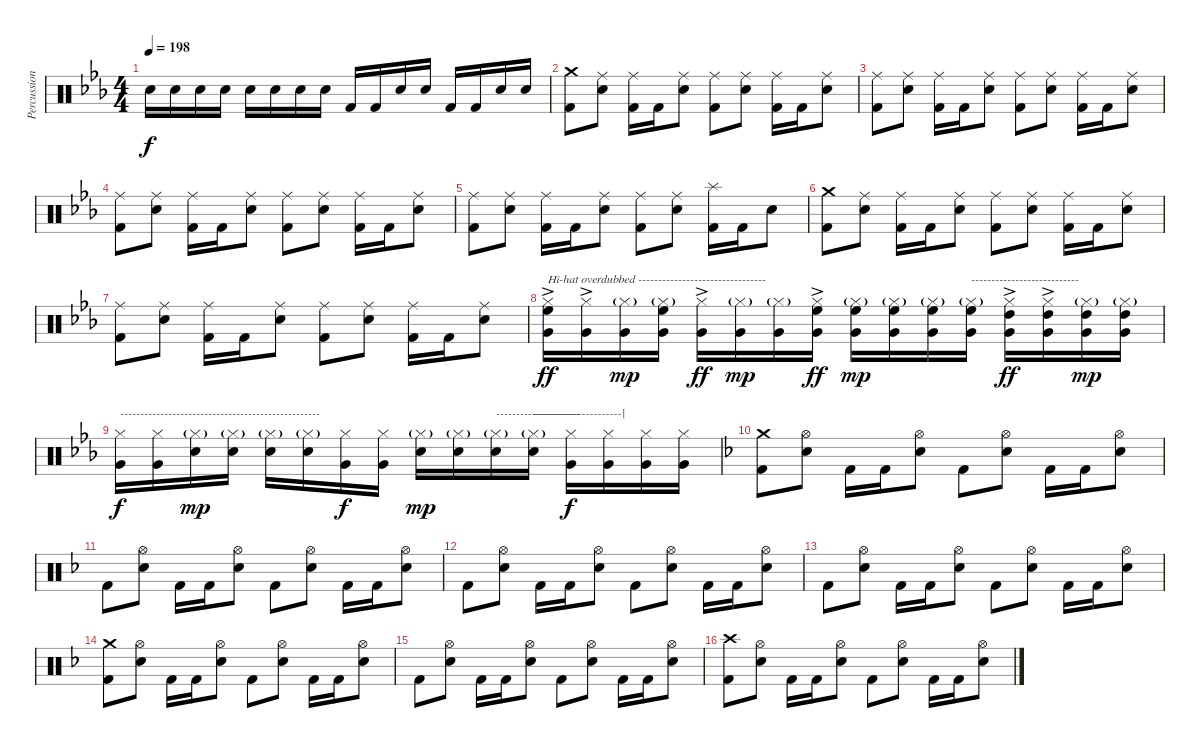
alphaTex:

\track ("Percussion" "Percussion") {instrument percussion}
\staff {score}
\articulation defaults
\ts (4 4)
\tempo 198
\clef neutral
\ks cminor "Snare (hit) 2".16{dy f} "Snare (hit) 2".16 "Snare (hit) 2".16 "Snare (hit) 2".16 "Snare (hit) 2".16 "Snare (hit) 2".16 "Snare (hit) 2".16 "Snare (hit) 2".16 "Kick (hit) 2".16 "Kick (hit) 2".16 "Snare (hit) 2".16 "Snare (hit) 2".16 "Kick (hit) 2".16 "Kick (hit) 2".16 "Snare (hit) 2".16 "Snare (hit) 2".16
|
("Crash medium (hit)" "Kick (hit) 2").8 ("Ride (middle)" "Snare (hit) 2").8 ("Ride (middle)" "Kick (hit) 2").16 "Kick (hit) 2".16 ("Ride (middle)" "Snare (hit) 2").8 ("Ride (middle)" "Kick (hit) 2").8 ("Ride (middle)" "Snare (hit) 2").8 ("Ride (middle)" "Kick (hit) 2").16 "Kick (hit) 2".16 ("Ride (middle)" "Snare (hit) 2").8 |
("Ride (middle)" "Kick (hit) 2").8 ("Ride (middle)" "Snare (hit) 2").8 ("Ride (middle)" "Kick (hit) 2").16 "Kick (hit) 2".16 ("Ride (middle)" "Snare (hit) 2").8 ("Ride (middle)" "Kick (hit) 2").8 ("Ride (middle)" "Snare (hit) 2").8 ("Ride (middle)" "Kick (hit) 2").16 "Kick (hit) 2".16 ("Ride (middle)" "Snare (hit) 2").8 |
("Ride (middle)" "Kick (hit) 2").8 ("Ride (middle)" "Snare (hit) 2").8 ("Ride (middle)" "Kick (hit) 2").16 "Kick (hit) 2".16 ("Ride (middle)" "Snare (hit) 2").8 ("Ride (middle)" "Kick (hit) 2").8 ("Ride (middle)" "Snare (hit) 2").8 ("Ride (middle)" "Kick (hit) 2").16 "Kick (hit) 2".16 ("Ride (middle)" "Snare (hit) 2").8 |
("Ride (middle)" "Kick (hit) 2").8 ("Ride (middle)" "Snare (hit) 2").8 ("Ride (middle)" "Kick (hit) 2").16 "Kick (hit) 2".16 ("Ride (middle)" "Snare (hit) 2").8 ("Ride (middle)" "Kick (hit) 2").8 ("Ride (middle)" "Snare (hit) 2").8 ("Splash (hit)" "Kick (hit) 2").16 "Kick (hit) 2".16 "Snare (hit) 2".8 |
("Crash medium (hit)" "Kick (hit) 2").8 ("Ride (middle)" "Snare (hit) 2").8 ("Ride (middle)" "Kick (hit) 2").16 "Kick (hit) 2".16 ("Ride (middle)" "Snare (hit) 2").8 ("Ride (middle)" "Kick (hit) 2").8 ("Ride (middle)" "Snare (hit) 2").8 ("Ride (middle)" "Kick (hit) 2").16 "Kick (hit) 2".16 ("Ride (middle)" "Snare (hit) 2").8 |
("Ride (middle)" "Kick (hit) 2").8 ("Ride (middle)" "Snare (hit) 2").8 ("Ride (middle)" "Kick (hit) 2").16 "Kick (hit) 2".16 ("Ride (middle)" "Snare (hit) 2").8 ("Ride (middle)" "Kick (hit) 2").8 ("Ride (middle)" "Snare (hit) 2").8 ("Ride (middle)" "Kick (hit) 2").16 "Kick (hit) 2".16 ("Ride (middle)" "Snare (hit) 2").8 |
("Hi-Hat (closed)"{ac} "High Floor Tom (hit)" "Very Low Tom (hit)").16{txt "Hi-hat overdubbed --------------------------------" dy ff} ("Hi-Hat (closed)"{ac} "Very Low Tom (hit)").16 ("Hi-Hat (closed)"{g} "Very Low Tom (hit)").16{dy mp} ("Hi-Hat (closed)"{g} "High Floor Tom (hit)" "Very Low Tom (hit)").16 ("Hi-Hat (closed)"{ac} "Very Low Tom (hit)").16{dy ff} ("Hi-Hat (closed)"{g} "Very Low Tom (hit)").16{dy mp} ("Hi-Hat (closed)"{g} "Very Low Tom (hit)").16 ("Hi-Hat (closed)"{ac} "High Floor Tom (hit)" "Very Low Tom (hit)").16{dy ff} ("Hi-Hat (closed)"{g} "High Floor Tom (hit)" "Very Low Tom (hit)").16{dy mp} ("Hi-Hat (closed)"{g} "High Floor Tom (hit)" "Very Low Tom (hit)").16 ("Hi-Hat (closed)"{g} "High Floor Tom (hit)" "Very Low Tom (hit)").16 ("Hi-Hat (closed)"{g} "High Floor Tom (hit)" "Very Low Tom (hit)").16{txt "---------------------------"} ("Hi-Hat (closed)"{ac} "High Tom (hit)" "Very Low Tom (hit)").16{dy ff} ("Hi-Hat (closed)"{ac} "High Tom (hit)" "Very Low Tom (hit)").16 ("Hi-Hat (closed)"{g} "High Tom (hit)" "Very Low Tom (hit)").16{dy mp} ("Hi-Hat (closed)"{g} "High Tom (hit)" "Very Low Tom (hit)").16 |
("Hi-Hat (closed)" "Very Low Tom (hit)").16{txt "--------------------------------------------------" dy f} ("Hi-Hat (closed)" "Very Low Tom (hit)").16 ("Hi-Hat (closed)"{g} "Snare (hit) 2").16{dy mp} ("Hi-Hat (closed)"{g} "Snare (hit) 2").16 ("Hi-Hat (closed)"{g} "Snare (hit) 2").16 ("Hi-Hat (closed)"{g} "Snare (hit) 2").16 ("Hi-Hat (closed)" "Very Low Tom (hit)").16{dy f} ("Hi-Hat (closed)" "Very Low Tom (hit)").16 ("Hi-Hat (closed)"{g} "Snare (hit) 2").16{dy mp} ("Hi-Hat (closed)"{g} "Snare (hit) 2").16 ("Hi-Hat (closed)"{g} "Snare (hit) 2").16{txt "---------------------"} ("Hi-Hat (closed)"{g} "Snare (hit) 2").16{txt "----------------------|"} ("Hi-Hat (closed)" "Very Low Tom (hit)").16{dy f} ("Hi-Hat (closed)" "Very Low Tom (hit)").16 ("Hi-Hat (closed)" "Very Low Tom (hit)").16 ("Hi-Hat (closed)" "Very Low Tom (hit)").16 |
\ks dminor
("Crash medium (hit)" "Kick (hit) 2").8 ("Hi-Hat (open)" "Snare (hit) 2").8 "Kick (hit) 2".16 "Kick (hit) 2".16 ("Hi-Hat (open)" "Snare (hit) 2").8 "Kick (hit) 2".8 ("Hi-Hat (open)" "Snare (hit) 2").8 "Kick (hit) 2".16 "Kick (hit) 2".16 ("Hi-Hat (open)" "Snare (hit) 2").8 |
"Kick (hit) 2".8 ("Hi-Hat (open)" "Snare (hit) 2").8 "Kick (hit) 2".16 "Kick (hit) 2".16 ("Hi-Hat (open)" "Snare (hit) 2").8 "Kick (hit) 2".8 ("Hi-Hat (open)" "Snare (hit) 2").8 "Kick (hit) 2".16 "Kick (hit) 2".16 ("Hi-Hat (open)" "Snare (hit) 2").8 |
"Kick (hit) 2".8 ("Hi-Hat (open)" "Snare (hit) 2").8 "Kick (hit) 2".16 "Kick (hit) 2".16 ("Hi-Hat (open)" "Snare (hit) 2").8 "Kick (hit) 2".8 ("Hi-Hat (open)" "Snare (hit) 2").8 "Kick (hit) 2".16 "Kick (hit) 2".16 ("Hi-Hat (open)" "Snare (hit) 2").8 |
"Kick (hit) 2".8 ("Hi-Hat (open)" "Snare (hit) 2").8 "Kick (hit) 2".16 "Kick (hit) 2".16 ("Hi-Hat (open)" "Snare (hit) 2").8 "Kick (hit) 2".8 ("Hi-Hat (open)" "Snare (hit) 2").8 "Kick (hit) 2".16 "Kick (hit) 2".16 ("Hi-Hat (open)" "Snare (hit) 2").8 |
("Crash medium (hit)" "Kick (hit) 2").8 ("Hi-Hat (open)" "Snare (hit) 2").8 "Kick (hit) 2".16 "Kick (hit) 2".16 ("Hi-Hat (open)" "Snare (hit) 2").8 "Kick (hit) 2".8 ("Hi-Hat (open)" "Snare (hit) 2").8 "Kick (hit) 2".16 "Kick (hit) 2".16 ("Hi-Hat (open)" "Snare (hit) 2").8 |
"Kick (hit) 2".8 ("Hi-Hat (open)" "Snare (hit) 2").8 "Kick (hit) 2".16 "Kick (hit) 2".16 ("Hi-Hat (open)" "Snare (hit) 2").8 "Kick (hit) 2".8 ("Hi-Hat (open)" "Snare (hit) 2").8 "Kick (hit) 2".16 "Kick (hit) 2".16 ("Hi-Hat (open)" "Snare (hit) 2").8 |
("Crash high (hit)" "Kick (hit) 2").8 ("Hi-Hat (open)" "Snare (hit) 2").8 "Kick (hit) 2".16 "Kick (hit) 2".16 ("Hi-Hat (open)" "Snare (hit) 2").8 "Kick (hit) 2".8 ("Hi-Hat (open)" "Snare (hit) 2").8 "Kick (hit) 2".16 "Kick (hit) 2".16 ("Hi-Hat (open)" "Snare (hit) 2").8
